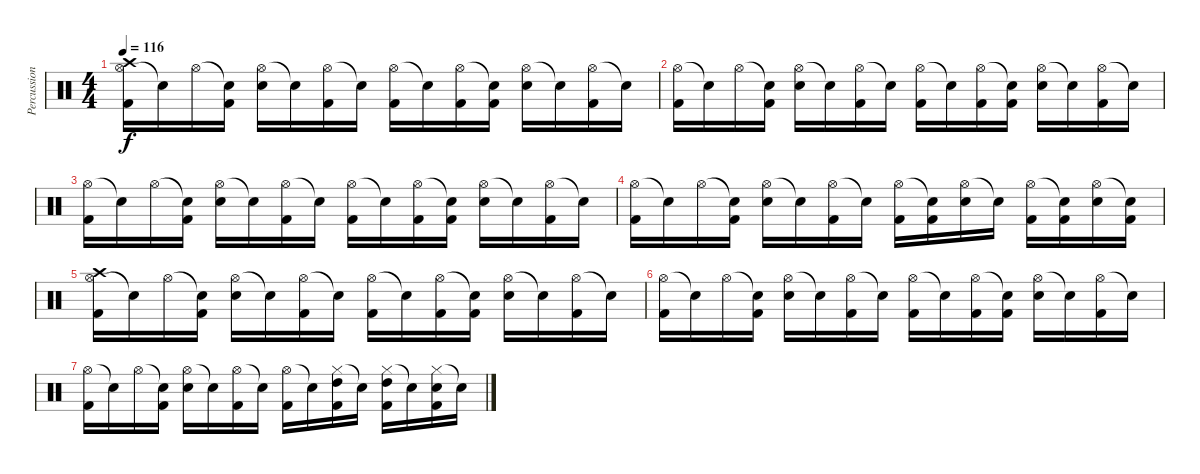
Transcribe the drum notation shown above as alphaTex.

\track ("Percussion" "Percussion") {instrument percussion}
\staff {score}
\articulation defaults
\ts (4 4)
\tempo 116
\clef neutral
\ks c
("Hi-Hat (open)" "Kick (hit) 2" "Crash high (hit)").16{dy f} "Snare (hit)"{t}.16 "Hi-Hat (open)".16 ("Snare (hit)"{t} "Kick (hit) 2").16 ("Hi-Hat (open)" "Electric Snare (hit)").16 "Snare (hit)"{t}.16 ("Hi-Hat (open)" "Kick (hit) 2").16 "Snare (hit)"{t}.16 ("Hi-Hat (open)" "Kick (hit) 2").16 "Snare (hit)"{t}.16 ("Hi-Hat (open)" "Kick (hit) 2").16 ("Snare (hit)"{t} "Kick (hit) 2").16 ("Hi-Hat (open)" "Electric Snare (hit)").16 "Snare (hit)"{t}.16 ("Hi-Hat (open)" "Kick (hit) 2").16 "Snare (hit)"{t}.16 |
("Hi-Hat (open)" "Kick (hit) 2").16 "Snare (hit)"{t}.16 "Hi-Hat (open)".16 ("Snare (hit)"{t} "Kick (hit) 2").16 ("Hi-Hat (open)" "Electric Snare (hit)").16 "Snare (hit)"{t}.16 ("Hi-Hat (open)" "Kick (hit) 2").16 "Snare (hit)"{t}.16 ("Hi-Hat (open)" "Kick (hit) 2").16 "Snare (hit)"{t}.16 ("Hi-Hat (open)" "Kick (hit) 2").16 ("Snare (hit)"{t} "Kick (hit) 2").16 ("Hi-Hat (open)" "Electric Snare (hit)").16 "Snare (hit)"{t}.16 ("Hi-Hat (open)" "Kick (hit) 2").16 "Snare (hit)"{t}.16 |
("Hi-Hat (open)" "Kick (hit) 2").16 "Snare (hit)"{t}.16 "Hi-Hat (open)".16 ("Snare (hit)"{t} "Kick (hit) 2").16 ("Hi-Hat (open)" "Electric Snare (hit)").16 "Snare (hit)"{t}.16 ("Hi-Hat (open)" "Kick (hit) 2").16 "Snare (hit)"{t}.16 ("Hi-Hat (open)" "Kick (hit) 2").16 "Snare (hit)"{t}.16 ("Hi-Hat (open)" "Kick (hit) 2").16 ("Snare (hit)"{t} "Kick (hit) 2").16 ("Hi-Hat (open)" "Electric Snare (hit)").16 "Snare (hit)"{t}.16 ("Hi-Hat (open)" "Kick (hit) 2").16 "Snare (hit)"{t}.16 |
("Hi-Hat (open)" "Kick (hit) 2").16 "Snare (hit)"{t}.16 "Hi-Hat (open)".16 ("Snare (hit)"{t} "Kick (hit) 2").16 ("Hi-Hat (open)" "Electric Snare (hit)").16 "Snare (hit)"{t}.16 ("Hi-Hat (open)" "Kick (hit) 2").16 "Snare (hit)"{t}.16 ("Hi-Hat (open)" "Kick (hit) 2").16 ("Snare (hit)"{t} "Kick (hit) 2").16 ("Hi-Hat (open)" "Electric Snare (hit)").16 "Snare (hit)"{t}.16 ("Hi-Hat (open)" "Kick (hit) 2").16 ("Snare (hit)"{t} "Kick (hit) 2").16 ("Hi-Hat (open)" "Electric Snare (hit)").16 ("Snare (hit)"{t} "Kick (hit) 2").16 |
("Hi-Hat (open)" "Kick (hit) 2" "Crash high (hit)").16 "Snare (hit)"{t}.16 "Hi-Hat (open)".16 ("Snare (hit)"{t} "Kick (hit) 2").16 ("Hi-Hat (open)" "Electric Snare (hit)").16 "Snare (hit)"{t}.16 ("Hi-Hat (open)" "Kick (hit) 2").16 "Snare (hit)"{t}.16 ("Hi-Hat (open)" "Kick (hit) 2").16 "Snare (hit)"{t}.16 ("Hi-Hat (open)" "Kick (hit) 2").16 ("Snare (hit)"{t} "Kick (hit) 2").16 ("Hi-Hat (open)" "Electric Snare (hit)").16 "Snare (hit)"{t}.16 ("Hi-Hat (open)" "Kick (hit) 2").16 "Snare (hit)"{t}.16 |
("Hi-Hat (open)" "Kick (hit) 2").16 "Snare (hit)"{t}.16 "Hi-Hat (open)".16 ("Snare (hit)"{t} "Kick (hit) 2").16 ("Hi-Hat (open)" "Electric Snare (hit)").16 "Snare (hit)"{t}.16 ("Hi-Hat (open)" "Kick (hit) 2").16 "Snare (hit)"{t}.16 ("Hi-Hat (open)" "Kick (hit) 2").16 "Snare (hit)"{t}.16 ("Hi-Hat (open)" "Kick (hit) 2").16 ("Snare (hit)"{t} "Kick (hit) 2").16 ("Hi-Hat (open)" "Electric Snare (hit)").16 "Snare (hit)"{t}.16 ("Hi-Hat (open)" "Kick (hit) 2").16 "Snare (hit)"{t}.16 |
("Hi-Hat (open)" "Kick (hit) 2").16 "Snare (hit)"{t}.16 "Hi-Hat (open)".16 ("Snare (hit)"{t} "Kick (hit) 2").16 ("Hi-Hat (open)" "Electric Snare (hit)").16 "Snare (hit)"{t}.16 ("Hi-Hat (open)" "Kick (hit) 2").16 "Snare (hit)"{t}.16 ("Hi-Hat (open)" "Kick (hit) 2").16 "Snare (hit)"{t}.16 ("Hi-Hat (closed)" "Kick (hit) 2" "High Tom (hit)").16 "Snare (hit)"{t}.16 ("Hi-Hat (closed)" "Kick (hit) 2" "High Tom (hit)").16 "Snare (hit)"{t}.16 ("Hi-Hat (closed)" "Kick (hit) 2" "Electric Snare (hit)").16 "Snare (hit)"{t}.16
